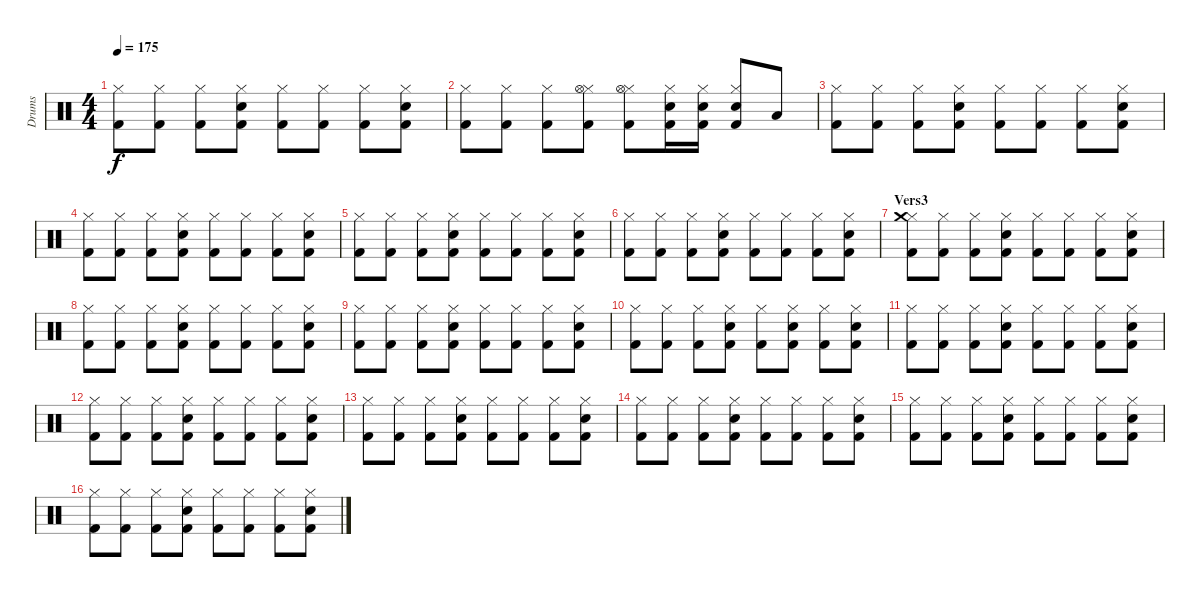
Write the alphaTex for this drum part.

\track ("Drums" "Drums") {instrument percussion}
\staff {score}
\articulation defaults
\ts (4 4)
\tempo 175
\clef neutral
\ks c
("Kick (hit) 2" "Hi-Hat (closed)").8{dy f} ("Kick (hit) 2" "Hi-Hat (closed)").8 ("Kick (hit) 2" "Hi-Hat (closed)").8 ("Kick (hit) 2" "Hi-Hat (closed)" "Snare (hit) 2").8 ("Kick (hit) 2" "Hi-Hat (closed)").8 ("Kick (hit) 2" "Hi-Hat (closed)").8 ("Kick (hit) 2" "Hi-Hat (closed)").8 ("Kick (hit) 2" "Hi-Hat (closed)" "Snare (hit) 2").8 |
("Kick (hit) 2" "Hi-Hat (closed)").8 ("Kick (hit) 2" "Hi-Hat (closed)").8 ("Kick (hit) 2" "Hi-Hat (closed)").8 ("Kick (hit) 2" "Hi-Hat (closed)" "Hi-Hat (open)").8 ("Kick (hit) 2" "Hi-Hat (closed)" "Hi-Hat (open)").8 ("Kick (hit) 2" "Hi-Hat (closed)" "Snare (hit) 2").16 ("Kick (hit) 2"{x} "Hi-Hat (closed)"{x} "Snare (hit) 2").16 ("Kick (hit) 2" "Hi-Hat (closed)" "Snare (hit) 2").8 "Low Floor Tom (hit)".8 |
("Kick (hit) 2" "Hi-Hat (closed)").8 ("Kick (hit) 2" "Hi-Hat (closed)").8 ("Kick (hit) 2" "Hi-Hat (closed)").8 ("Kick (hit) 2" "Hi-Hat (closed)" "Snare (hit) 2").8 ("Kick (hit) 2" "Hi-Hat (closed)").8 ("Kick (hit) 2" "Hi-Hat (closed)").8 ("Kick (hit) 2" "Hi-Hat (closed)").8 ("Kick (hit) 2" "Hi-Hat (closed)" "Snare (hit) 2").8 |
("Kick (hit) 2" "Hi-Hat (closed)").8 ("Kick (hit) 2" "Hi-Hat (closed)").8 ("Kick (hit) 2" "Hi-Hat (closed)").8 ("Kick (hit) 2" "Hi-Hat (closed)" "Snare (hit) 2").8 ("Kick (hit) 2" "Hi-Hat (closed)").8 ("Kick (hit) 2" "Hi-Hat (closed)").8 ("Kick (hit) 2" "Hi-Hat (closed)").8 ("Kick (hit) 2" "Hi-Hat (closed)" "Snare (hit) 2").8 |
("Kick (hit) 2" "Hi-Hat (closed)").8 ("Kick (hit) 2" "Hi-Hat (closed)").8 ("Kick (hit) 2" "Hi-Hat (closed)").8 ("Kick (hit) 2" "Hi-Hat (closed)" "Snare (hit) 2").8 ("Kick (hit) 2" "Hi-Hat (closed)").8 ("Kick (hit) 2" "Hi-Hat (closed)").8 ("Kick (hit) 2" "Hi-Hat (closed)").8 ("Kick (hit) 2" "Hi-Hat (closed)" "Snare (hit) 2").8 |
("Kick (hit) 2" "Hi-Hat (closed)").8 ("Kick (hit) 2" "Hi-Hat (closed)").8 ("Kick (hit) 2" "Hi-Hat (closed)").8 ("Kick (hit) 2" "Hi-Hat (closed)" "Snare (hit) 2").8 ("Kick (hit) 2" "Hi-Hat (closed)").8 ("Kick (hit) 2" "Hi-Hat (closed)").8 ("Kick (hit) 2" "Hi-Hat (closed)").8 ("Kick (hit) 2" "Hi-Hat (closed)" "Snare (hit) 2").8 |
\section ("" "Vers3")
("Kick (hit) 2" "Hi-Hat (closed)" "Crash medium (hit)").8 ("Kick (hit) 2" "Hi-Hat (closed)").8 ("Kick (hit) 2" "Hi-Hat (closed)").8 ("Kick (hit) 2" "Hi-Hat (closed)" "Snare (hit) 2").8 ("Kick (hit) 2" "Hi-Hat (closed)").8 ("Kick (hit) 2" "Hi-Hat (closed)").8 ("Kick (hit) 2" "Hi-Hat (closed)").8 ("Kick (hit) 2" "Hi-Hat (closed)" "Snare (hit) 2").8 |
("Kick (hit) 2" "Hi-Hat (closed)").8 ("Kick (hit) 2" "Hi-Hat (closed)").8 ("Kick (hit) 2" "Hi-Hat (closed)").8 ("Kick (hit) 2" "Hi-Hat (closed)" "Snare (hit) 2").8 ("Kick (hit) 2" "Hi-Hat (closed)").8 ("Kick (hit) 2" "Hi-Hat (closed)").8 ("Kick (hit) 2" "Hi-Hat (closed)").8 ("Kick (hit) 2" "Hi-Hat (closed)" "Snare (hit) 2").8 |
("Kick (hit) 2" "Hi-Hat (closed)").8 ("Kick (hit) 2" "Hi-Hat (closed)").8 ("Kick (hit) 2" "Hi-Hat (closed)").8 ("Kick (hit) 2" "Hi-Hat (closed)" "Snare (hit) 2").8 ("Kick (hit) 2" "Hi-Hat (closed)").8 ("Kick (hit) 2" "Hi-Hat (closed)").8 ("Kick (hit) 2" "Hi-Hat (closed)").8 ("Kick (hit) 2" "Hi-Hat (closed)" "Snare (hit) 2").8 |
("Kick (hit) 2" "Hi-Hat (closed)").8 ("Kick (hit) 2" "Hi-Hat (closed)").8 ("Kick (hit) 2" "Hi-Hat (closed)").8 ("Kick (hit) 2" "Hi-Hat (closed)" "Snare (hit) 2").8 ("Kick (hit) 2" "Hi-Hat (closed)").8 ("Kick (hit) 2" "Hi-Hat (closed)" "Snare (hit) 2").8 ("Kick (hit) 2" "Hi-Hat (closed)").8 ("Kick (hit) 2" "Hi-Hat (closed)" "Snare (hit) 2").8 |
("Kick (hit) 2" "Hi-Hat (closed)").8 ("Kick (hit) 2" "Hi-Hat (closed)").8 ("Kick (hit) 2" "Hi-Hat (closed)").8 ("Kick (hit) 2" "Hi-Hat (closed)" "Snare (hit) 2").8 ("Kick (hit) 2" "Hi-Hat (closed)").8 ("Kick (hit) 2" "Hi-Hat (closed)").8 ("Kick (hit) 2" "Hi-Hat (closed)").8 ("Kick (hit) 2" "Hi-Hat (closed)" "Snare (hit) 2").8 |
("Kick (hit) 2" "Hi-Hat (closed)").8 ("Kick (hit) 2" "Hi-Hat (closed)").8 ("Kick (hit) 2" "Hi-Hat (closed)").8 ("Kick (hit) 2" "Hi-Hat (closed)" "Snare (hit) 2").8 ("Kick (hit) 2" "Hi-Hat (closed)").8 ("Kick (hit) 2" "Hi-Hat (closed)").8 ("Kick (hit) 2" "Hi-Hat (closed)").8 ("Kick (hit) 2" "Hi-Hat (closed)" "Snare (hit) 2").8 |
("Kick (hit) 2" "Hi-Hat (closed)").8 ("Kick (hit) 2" "Hi-Hat (closed)").8 ("Kick (hit) 2" "Hi-Hat (closed)").8 ("Kick (hit) 2" "Hi-Hat (closed)" "Snare (hit) 2").8 ("Kick (hit) 2" "Hi-Hat (closed)").8 ("Kick (hit) 2" "Hi-Hat (closed)").8 ("Kick (hit) 2" "Hi-Hat (closed)").8 ("Kick (hit) 2" "Hi-Hat (closed)" "Snare (hit) 2").8 |
("Kick (hit) 2" "Hi-Hat (closed)").8 ("Kick (hit) 2" "Hi-Hat (closed)").8 ("Kick (hit) 2" "Hi-Hat (closed)").8 ("Kick (hit) 2" "Hi-Hat (closed)" "Snare (hit) 2").8 ("Kick (hit) 2" "Hi-Hat (closed)").8 ("Kick (hit) 2" "Hi-Hat (closed)").8 ("Kick (hit) 2" "Hi-Hat (closed)").8 ("Kick (hit) 2" "Hi-Hat (closed)" "Snare (hit) 2").8 |
("Kick (hit) 2" "Hi-Hat (closed)").8 ("Kick (hit) 2" "Hi-Hat (closed)").8 ("Kick (hit) 2" "Hi-Hat (closed)").8 ("Kick (hit) 2" "Hi-Hat (closed)" "Snare (hit) 2").8 ("Kick (hit) 2" "Hi-Hat (closed)").8 ("Kick (hit) 2" "Hi-Hat (closed)").8 ("Kick (hit) 2" "Hi-Hat (closed)").8 ("Kick (hit) 2" "Hi-Hat (closed)" "Snare (hit) 2").8 |
("Kick (hit) 2" "Hi-Hat (closed)").8 ("Kick (hit) 2" "Hi-Hat (closed)").8 ("Kick (hit) 2" "Hi-Hat (closed)").8 ("Kick (hit) 2" "Hi-Hat (closed)" "Snare (hit) 2").8 ("Kick (hit) 2" "Hi-Hat (closed)").8 ("Kick (hit) 2" "Hi-Hat (closed)").8 ("Kick (hit) 2" "Hi-Hat (closed)").8 ("Kick (hit) 2" "Hi-Hat (closed)" "Snare (hit) 2").8
